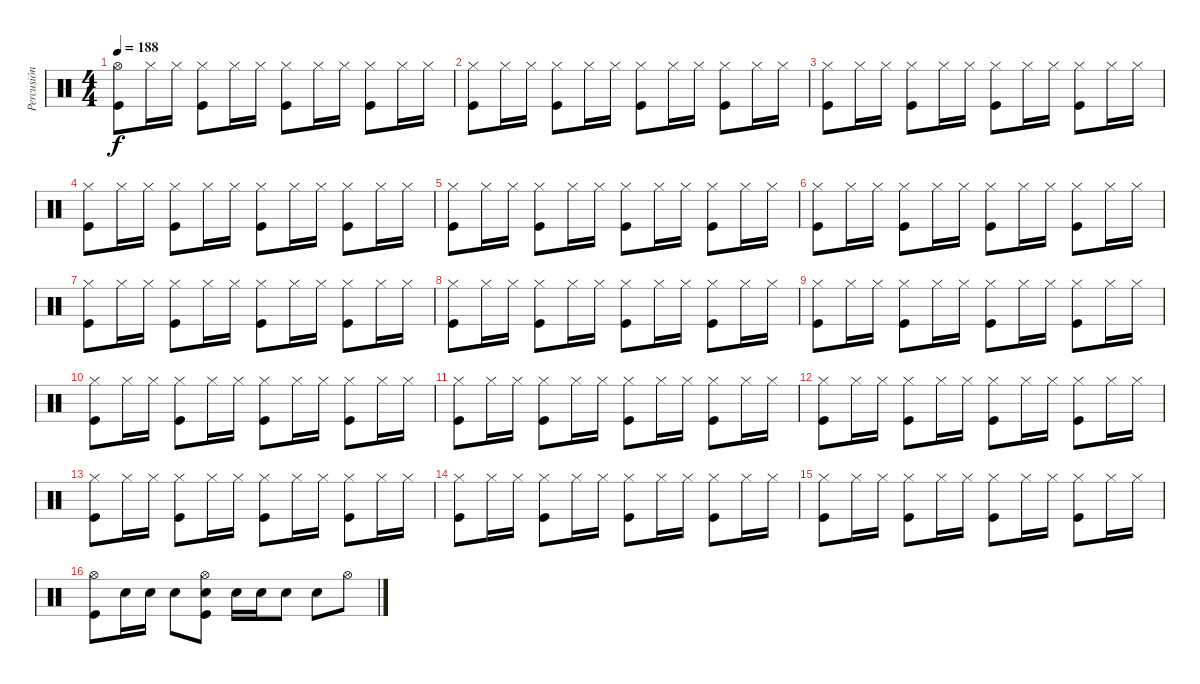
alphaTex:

\track ("Percusión" "Percusión") {instrument percussion}
\staff {score}
\articulation defaults
\ts (4 4)
\tempo 188
\clef neutral
\ks c
("Hi-Hat (open)" "Kick (hit)").8{dy f} "Hi-Hat (closed)".16 "Hi-Hat (closed)".16 ("Hi-Hat (closed)" "Kick (hit)").8 "Hi-Hat (closed)".16 "Hi-Hat (closed)".16 ("Hi-Hat (closed)" "Kick (hit)").8 "Hi-Hat (closed)".16 "Hi-Hat (closed)".16 ("Hi-Hat (closed)" "Kick (hit)").8 "Hi-Hat (closed)".16 "Hi-Hat (closed)".16 |
("Hi-Hat (closed)" "Kick (hit)").8 "Hi-Hat (closed)".16 "Hi-Hat (closed)".16 ("Hi-Hat (closed)" "Kick (hit)").8 "Hi-Hat (closed)".16 "Hi-Hat (closed)".16 ("Hi-Hat (closed)" "Kick (hit)").8 "Hi-Hat (closed)".16 "Hi-Hat (closed)".16 ("Hi-Hat (closed)" "Kick (hit)").8 "Hi-Hat (closed)".16 "Hi-Hat (closed)".16 |
("Hi-Hat (closed)" "Kick (hit)").8 "Hi-Hat (closed)".16 "Hi-Hat (closed)".16 ("Hi-Hat (closed)" "Kick (hit)").8 "Hi-Hat (closed)".16 "Hi-Hat (closed)".16 ("Hi-Hat (closed)" "Kick (hit)").8 "Hi-Hat (closed)".16 "Hi-Hat (closed)".16 ("Hi-Hat (closed)" "Kick (hit)").8 "Hi-Hat (closed)".16 "Hi-Hat (closed)".16 |
("Hi-Hat (closed)" "Kick (hit)").8 "Hi-Hat (closed)".16 "Hi-Hat (closed)".16 ("Hi-Hat (closed)" "Kick (hit)").8 "Hi-Hat (closed)".16 "Hi-Hat (closed)".16 ("Hi-Hat (closed)" "Kick (hit)").8 "Hi-Hat (closed)".16 "Hi-Hat (closed)".16 ("Hi-Hat (closed)" "Kick (hit)").8 "Hi-Hat (closed)".16 "Hi-Hat (closed)".16 |
("Hi-Hat (closed)" "Kick (hit)").8 "Hi-Hat (closed)".16 "Hi-Hat (closed)".16 ("Hi-Hat (closed)" "Kick (hit)").8 "Hi-Hat (closed)".16 "Hi-Hat (closed)".16 ("Hi-Hat (closed)" "Kick (hit)").8 "Hi-Hat (closed)".16 "Hi-Hat (closed)".16 ("Hi-Hat (closed)" "Kick (hit)").8 "Hi-Hat (closed)".16 "Hi-Hat (closed)".16 |
("Hi-Hat (closed)" "Kick (hit)").8 "Hi-Hat (closed)".16 "Hi-Hat (closed)".16 ("Hi-Hat (closed)" "Kick (hit)").8 "Hi-Hat (closed)".16 "Hi-Hat (closed)".16 ("Hi-Hat (closed)" "Kick (hit)").8 "Hi-Hat (closed)".16 "Hi-Hat (closed)".16 ("Hi-Hat (closed)" "Kick (hit)").8 "Hi-Hat (closed)".16 "Hi-Hat (closed)".16 |
("Hi-Hat (closed)" "Kick (hit)").8 "Hi-Hat (closed)".16 "Hi-Hat (closed)".16 ("Hi-Hat (closed)" "Kick (hit)").8 "Hi-Hat (closed)".16 "Hi-Hat (closed)".16 ("Hi-Hat (closed)" "Kick (hit)").8 "Hi-Hat (closed)".16 "Hi-Hat (closed)".16 ("Hi-Hat (closed)" "Kick (hit)").8 "Hi-Hat (closed)".16 "Hi-Hat (closed)".16 |
("Hi-Hat (closed)" "Kick (hit)").8 "Hi-Hat (closed)".16 "Hi-Hat (closed)".16 ("Hi-Hat (closed)" "Kick (hit)").8 "Hi-Hat (closed)".16 "Hi-Hat (closed)".16 ("Hi-Hat (closed)" "Kick (hit)").8 "Hi-Hat (closed)".16 "Hi-Hat (closed)".16 ("Hi-Hat (closed)" "Kick (hit)").8 "Hi-Hat (closed)".16 "Hi-Hat (closed)".16 |
("Hi-Hat (closed)" "Kick (hit)").8 "Hi-Hat (closed)".16 "Hi-Hat (closed)".16 ("Hi-Hat (closed)" "Kick (hit)").8 "Hi-Hat (closed)".16 "Hi-Hat (closed)".16 ("Hi-Hat (closed)" "Kick (hit)").8 "Hi-Hat (closed)".16 "Hi-Hat (closed)".16 ("Hi-Hat (closed)" "Kick (hit)").8 "Hi-Hat (closed)".16 "Hi-Hat (closed)".16 |
("Hi-Hat (closed)" "Kick (hit)").8 "Hi-Hat (closed)".16 "Hi-Hat (closed)".16 ("Hi-Hat (closed)" "Kick (hit)").8 "Hi-Hat (closed)".16 "Hi-Hat (closed)".16 ("Hi-Hat (closed)" "Kick (hit)").8 "Hi-Hat (closed)".16 "Hi-Hat (closed)".16 ("Hi-Hat (closed)" "Kick (hit)").8 "Hi-Hat (closed)".16 "Hi-Hat (closed)".16 |
("Hi-Hat (closed)" "Kick (hit)").8 "Hi-Hat (closed)".16 "Hi-Hat (closed)".16 ("Hi-Hat (closed)" "Kick (hit)").8 "Hi-Hat (closed)".16 "Hi-Hat (closed)".16 ("Hi-Hat (closed)" "Kick (hit)").8 "Hi-Hat (closed)".16 "Hi-Hat (closed)".16 ("Hi-Hat (closed)" "Kick (hit)").8 "Hi-Hat (closed)".16 "Hi-Hat (closed)".16 |
("Hi-Hat (closed)" "Kick (hit)").8 "Hi-Hat (closed)".16 "Hi-Hat (closed)".16 ("Hi-Hat (closed)" "Kick (hit)").8 "Hi-Hat (closed)".16 "Hi-Hat (closed)".16 ("Hi-Hat (closed)" "Kick (hit)").8 "Hi-Hat (closed)".16 "Hi-Hat (closed)".16 ("Hi-Hat (closed)" "Kick (hit)").8 "Hi-Hat (closed)".16 "Hi-Hat (closed)".16 |
("Hi-Hat (closed)" "Kick (hit)").8 "Hi-Hat (closed)".16 "Hi-Hat (closed)".16 ("Hi-Hat (closed)" "Kick (hit)").8 "Hi-Hat (closed)".16 "Hi-Hat (closed)".16 ("Hi-Hat (closed)" "Kick (hit)").8 "Hi-Hat (closed)".16 "Hi-Hat (closed)".16 ("Hi-Hat (closed)" "Kick (hit)").8 "Hi-Hat (closed)".16 "Hi-Hat (closed)".16 |
("Hi-Hat (closed)" "Kick (hit)").8 "Hi-Hat (closed)".16 "Hi-Hat (closed)".16 ("Hi-Hat (closed)" "Kick (hit)").8 "Hi-Hat (closed)".16 "Hi-Hat (closed)".16 ("Hi-Hat (closed)" "Kick (hit)").8 "Hi-Hat (closed)".16 "Hi-Hat (closed)".16 ("Hi-Hat (closed)" "Kick (hit)").8 "Hi-Hat (closed)".16 "Hi-Hat (closed)".16 |
("Hi-Hat (closed)" "Kick (hit)").8 "Hi-Hat (closed)".16 "Hi-Hat (closed)".16 ("Hi-Hat (closed)" "Kick (hit)").8 "Hi-Hat (closed)".16 "Hi-Hat (closed)".16 ("Hi-Hat (closed)" "Kick (hit)").8 "Hi-Hat (closed)".16 "Hi-Hat (closed)".16 ("Hi-Hat (closed)" "Kick (hit)").8 "Hi-Hat (closed)".16 "Hi-Hat (closed)".16 |
("Hi-Hat (open)" "Kick (hit)").8 "Electric Snare (hit)".16 "Electric Snare (hit)".16 "Electric Snare (hit)".8 ("Hi-Hat (open)" "Electric Snare (hit)" "Kick (hit)").8 "Electric Snare (hit)".16 "Electric Snare (hit)".16 "Electric Snare (hit)".8 "Electric Snare (hit)".8 "Hi-Hat (open)".8
